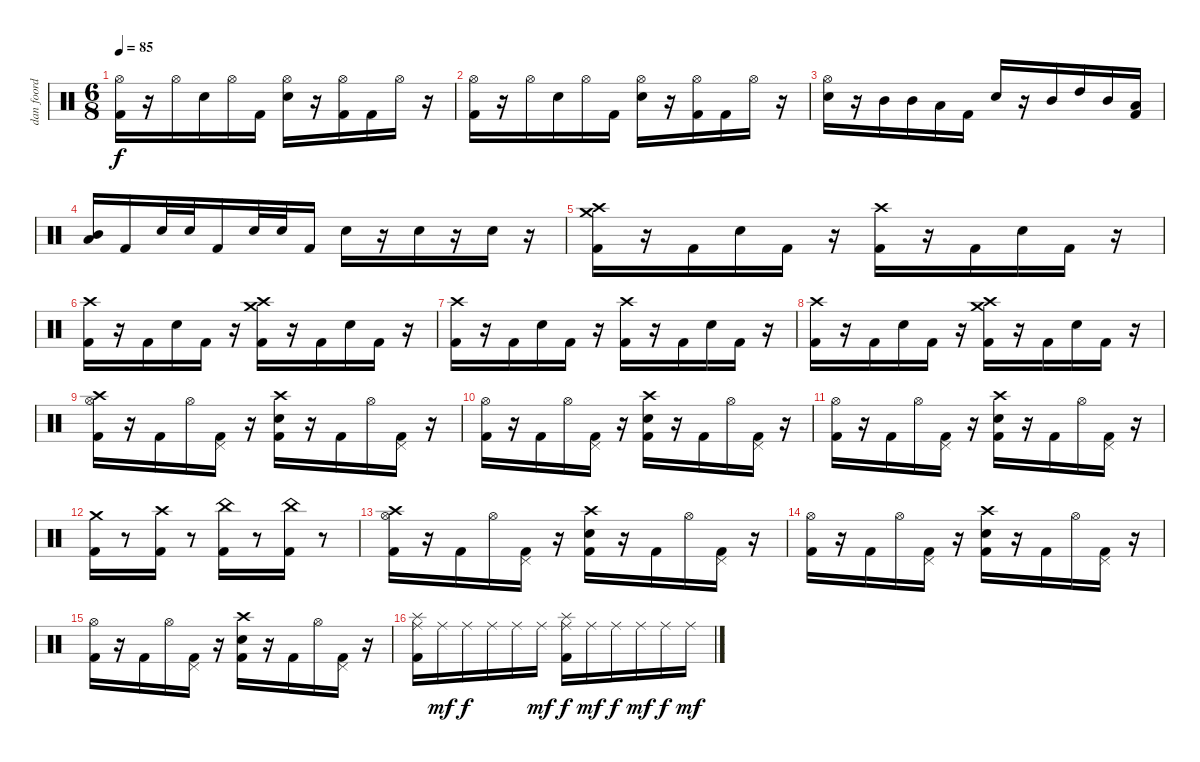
\track ("dan foord" "dan foord") {instrument percussion}
\staff {score}
\articulation defaults
\ts (6 8)
\tempo 85
\clef neutral
\ks c
("Kick (hit) 2" "Hi-Hat (open)").16{dy f} r.16 "Hi-Hat (open)".16 "Snare (hit) 2".16 "Hi-Hat (open)".16 "Kick (hit) 2".16 ("Snare (hit) 2" "Hi-Hat (open)").16 r.16 ("Kick (hit) 2" "Hi-Hat (open)").16 "Kick (hit) 2".16 "Hi-Hat (open)".16 r.16 |
("Kick (hit) 2" "Hi-Hat (open)").16 r.16 "Hi-Hat (open)".16 "Snare (hit) 2".16 "Hi-Hat (open)".16 "Kick (hit) 2".16 ("Snare (hit) 2" "Hi-Hat (open)").16 r.16 ("Kick (hit) 2" "Hi-Hat (open)").16 "Kick (hit) 2".16 "Hi-Hat (open)".16 r.16 |
("Snare (hit) 2" "Hi-Hat (open)").16 r.16 "Mid Tom (hit)".16 "Mid Tom (hit)".16 "Low Floor Tom (hit)".16 "Kick (hit) 2".16 "Snare (hit) 2".16 r.16 "Mid Tom (hit)".16 "High Tom (hit)".16 "Mid Tom (hit)".16 ("Kick (hit) 2" "Low Floor Tom (hit)").16 |
("Low Floor Tom (hit)" "Mid Tom (hit)").16 "Kick (hit) 2".16 "Snare (hit) 2".32 "Snare (hit) 2".32 "Kick (hit) 2".16 "Snare (hit) 2".32 "Snare (hit) 2".32 "Kick (hit) 2".16 "Snare (hit) 2".16 r.16 "Snare (hit) 2".16 r.16 "Snare (hit) 2".16 r.16 |
("Kick (hit) 2" "Crash high (hit)" "Crash medium (hit)").16 r.16 "Kick (hit) 2".16 "Snare (hit) 2".16 "Kick (hit) 2".16 r.16 ("Kick (hit) 2" "Crash high (hit)").16 r.16 "Kick (hit) 2".16 "Snare (hit) 2".16 "Kick (hit) 2".16 r.16 |
("Kick (hit) 2" "Crash high (hit)").16 r.16 "Kick (hit) 2".16 "Snare (hit) 2".16 "Kick (hit) 2".16 r.16 ("Kick (hit) 2" "Crash high (hit)" "Crash medium (hit)").16 r.16 "Kick (hit) 2".16 "Snare (hit) 2".16 "Kick (hit) 2".16 r.16 |
("Kick (hit) 2" "Crash high (hit)").16 r.16 "Kick (hit) 2".16 "Snare (hit) 2".16 "Kick (hit) 2".16 r.16 ("Kick (hit) 2" "Crash high (hit)").16 r.16 "Kick (hit) 2".16 "Snare (hit) 2".16 "Kick (hit) 2".16 r.16 |
("Kick (hit) 2" "Crash high (hit)").16 r.16 "Kick (hit) 2".16 "Snare (hit) 2".16 "Kick (hit) 2".16 r.16 ("Kick (hit) 2" "Crash high (hit)" "Crash medium (hit)").16 r.16 "Kick (hit) 2".16 "Snare (hit) 2".16 "Kick (hit) 2".16 r.16 |
("Kick (hit) 2" "Hi-Hat (open)" "Crash high (hit)").16 r.16 "Kick (hit) 2".16 "Hi-Hat (open)".16 ("Kick (hit) 2" "Pedal Hi-Hat (hit)").16 r.16 ("Kick (hit) 2" "Snare (hit) 2" "Crash high (hit)").16 r.16 "Kick (hit) 2".16 "Hi-Hat (open)".16 ("Kick (hit) 2" "Pedal Hi-Hat (hit)").16 r.16 |
("Kick (hit) 2" "Hi-Hat (open)").16 r.16 "Kick (hit) 2".16 "Hi-Hat (open)".16 ("Kick (hit) 2" "Pedal Hi-Hat (hit)").16 r.16 ("Kick (hit) 2" "Snare (hit) 2" "Crash high (hit)").16 r.16 "Kick (hit) 2".16 "Hi-Hat (open)".16 ("Kick (hit) 2" "Pedal Hi-Hat (hit)").16 r.16 |
("Kick (hit) 2" "Hi-Hat (open)").16 r.16 "Kick (hit) 2".16 "Hi-Hat (open)".16 ("Kick (hit) 2" "Pedal Hi-Hat (hit)").16 r.16 ("Kick (hit) 2" "Snare (hit) 2" "Crash high (hit)").16 r.16 "Kick (hit) 2".16 "Hi-Hat (open)".16 ("Kick (hit) 2" "Pedal Hi-Hat (hit)").16 r.16 |
("Kick (hit) 2" "Crash medium (hit)").16 r.8 ("Kick (hit) 2" "Crash high (hit)").16 r.8 ("Kick (hit) 2" "China (hit)").16 r.8 ("Kick (hit) 2" "China (hit)").16 r.8 |
("Kick (hit) 2" "Hi-Hat (open)" "Crash high (hit)").16 r.16 "Kick (hit) 2".16 "Hi-Hat (open)".16 ("Kick (hit) 2" "Pedal Hi-Hat (hit)").16 r.16 ("Kick (hit) 2" "Snare (hit) 2" "Crash high (hit)").16 r.16 "Kick (hit) 2".16 "Hi-Hat (open)".16 ("Kick (hit) 2" "Pedal Hi-Hat (hit)").16 r.16 |
("Kick (hit) 2" "Hi-Hat (open)").16 r.16 "Kick (hit) 2".16 "Hi-Hat (open)".16 ("Kick (hit) 2" "Pedal Hi-Hat (hit)").16 r.16 ("Kick (hit) 2" "Snare (hit) 2" "Crash high (hit)").16 r.16 "Kick (hit) 2".16 "Hi-Hat (open)".16 ("Kick (hit) 2" "Pedal Hi-Hat (hit)").16 r.16 |
("Kick (hit) 2" "Hi-Hat (open)").16 r.16 "Kick (hit) 2".16 "Hi-Hat (open)".16 ("Kick (hit) 2" "Pedal Hi-Hat (hit)").16 r.16 ("Kick (hit) 2" "Snare (hit) 2" "Crash high (hit)").16 r.16 "Kick (hit) 2".16 "Hi-Hat (open)".16 ("Kick (hit) 2" "Pedal Hi-Hat (hit)").16 r.16 |
("Kick (hit) 2" "Ride (middle)" "Splash (hit)").16 "Ride (middle)".16{dy mf} "Ride (middle)".16{dy f} "Ride (middle)".16 "Ride (middle)".16 "Ride (middle)".16{dy mf} ("Kick (hit) 2" "Ride (middle)" "Splash (hit)").16{dy f} "Ride (middle)".16{dy mf} "Ride (middle)".16{dy f} "Ride (middle)".16{dy mf} "Ride (middle)".16{dy f} "Ride (middle)".16{dy mf}
